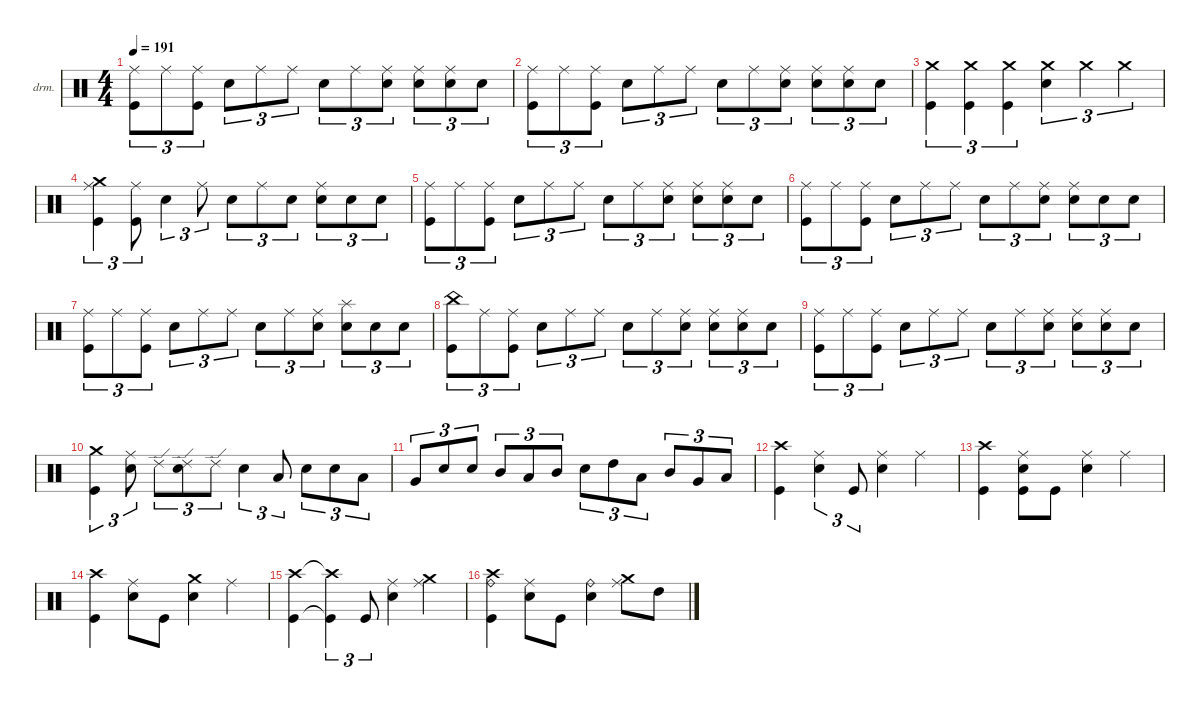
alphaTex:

\defaultSystemsLayout 4
\hideDynamics
\bracketExtendMode nobrackets
\firstSystemTrackNameOrientation horizontal
\otherSystemsTrackNameOrientation horizontal
\track ("Drumkit" "drm.") {instrument percussion}
\staff {score}
\articulation defaults
\ts (4 4)
\tempo 191
\clef neutral
\ks c
("Kick (hit)" "Ride (middle)").8{tu (3 2) dy mf beam Down} "Ride (middle)".8{tu (3 2) dy mp beam Down} ("Kick (hit)" "Ride (middle)").8{tu (3 2) dy mf beam Down} "Snare (hit) 2".8{tu (3 2) dy mp beam Down} "Ride (middle)".8{tu (3 2) beam Down} "Ride (middle)".8{tu (3 2) beam Down} "Snare (hit) 2".8{tu (3 2) dy f beam Down} "Ride (middle)".8{tu (3 2) dy mp beam Down} ("Snare (hit) 2" "Ride (middle)").8{tu (3 2) dy p beam Down} ("Snare (hit) 2" "Ride (middle)").8{tu (3 2) dy mp beam Down} ("Snare (hit) 2" "Ride (middle)").8{tu (3 2) beam Down} "Snare (hit) 2".8{tu (3 2) beam Down} |
("Kick (hit)" "Ride (middle)").8{tu (3 2) dy mf beam Down} "Ride (middle)".8{tu (3 2) dy mp beam Down} ("Kick (hit)" "Ride (middle)").8{tu (3 2) dy mf beam Down} "Snare (hit) 2".8{tu (3 2) dy mp beam Down} "Ride (middle)".8{tu (3 2) beam Down} "Ride (middle)".8{tu (3 2) beam Down} "Snare (hit) 2".8{tu (3 2) dy f beam Down} "Ride (middle)".8{tu (3 2) dy mp beam Down} ("Snare (hit) 2" "Ride (middle)").8{tu (3 2) dy p beam Down} ("Snare (hit) 2" "Ride (middle)").8{tu (3 2) dy mp beam Down} ("Snare (hit) 2" "Ride (middle)").8{tu (3 2) beam Down} "Snare (hit) 2".8{tu (3 2) beam Down} |
("Kick (hit)" "Crash medium (hit)").4{tu (3 2) beam Down} ("Kick (hit)" "Crash medium (hit)").4{tu (3 2) dy f beam Down} ("Kick (hit)" "Crash medium (hit)").4{tu (3 2) beam Down} ("Snare (hit) 2" "Crash medium (hit)").4{tu (3 2) beam Down} "Crash medium (hit)".4{tu (3 2) dy mf beam Down} "Crash medium (hit)".4{tu (3 2) dy f beam Down} |
("Kick (hit)" "Ride (middle)" "Crash medium (hit)").4{tu (3 2) dy mf beam Down} ("Kick (hit)" "Ride (middle)").8{tu (3 2) beam Down} "Snare (hit) 2".4{tu (3 2) dy mp beam Down} "Ride (middle)".8{tu (3 2) beam Down} "Snare (hit) 2".8{tu (3 2) dy f beam Down} "Ride (middle)".8{tu (3 2) dy mp beam Down} "Snare (hit) 2".8{tu (3 2) dy p beam Down} ("Snare (hit) 2" "Ride (middle)").8{tu (3 2) dy mp beam Down} "Snare (hit) 2".8{tu (3 2) beam Down} "Snare (hit) 2".8{tu (3 2) beam Down} |
("Kick (hit)" "Ride (middle)").8{tu (3 2) dy mf beam Down} "Ride (middle)".8{tu (3 2) dy mp beam Down} ("Kick (hit)" "Ride (middle)").8{tu (3 2) dy mf beam Down} "Snare (hit) 2".8{tu (3 2) dy mp beam Down} "Ride (middle)".8{tu (3 2) beam Down} "Ride (middle)".8{tu (3 2) beam Down} "Snare (hit) 2".8{tu (3 2) dy f beam Down} "Ride (middle)".8{tu (3 2) dy mp beam Down} ("Snare (hit) 2" "Ride (middle)").8{tu (3 2) dy p beam Down} ("Snare (hit) 2" "Ride (middle)").8{tu (3 2) dy mp beam Down} ("Snare (hit) 2" "Ride (middle)").8{tu (3 2) beam Down} "Snare (hit) 2".8{tu (3 2) beam Down} |
("Kick (hit)" "Ride (middle)").8{tu (3 2) dy mf beam Down} "Ride (middle)".8{tu (3 2) dy mp beam Down} ("Kick (hit)" "Ride (middle)").8{tu (3 2) dy mf beam Down} "Snare (hit) 2".8{tu (3 2) dy mp beam Down} "Ride (middle)".8{tu (3 2) beam Down} "Ride (middle)".8{tu (3 2) beam Down} "Snare (hit) 2".8{tu (3 2) dy f beam Down} "Ride (middle)".8{tu (3 2) dy mp beam Down} ("Snare (hit) 2" "Ride (middle)").8{tu (3 2) dy p beam Down} ("Snare (hit) 2" "Ride (middle)").8{tu (3 2) dy mp beam Down} "Snare (hit) 2".8{tu (3 2) beam Down} "Snare (hit) 2".8{tu (3 2) beam Down} |
("Kick (hit)" "Ride (middle)").8{tu (3 2) dy mf beam Down} "Ride (middle)".8{tu (3 2) dy mp beam Down} ("Kick (hit)" "Ride (middle)").8{tu (3 2) dy mf beam Down} "Snare (hit) 2".8{tu (3 2) dy mp beam Down} "Ride (middle)".8{tu (3 2) beam Down} "Ride (middle)".8{tu (3 2) beam Down} "Snare (hit) 2".8{tu (3 2) dy f beam Down} "Ride (middle)".8{tu (3 2) dy mp beam Down} ("Snare (hit) 2" "Ride (middle)").8{tu (3 2) dy p beam Down} ("Snare (hit) 2" "Splash (hit)").8{tu (3 2) dy mp beam Down} "Snare (hit) 2".8{tu (3 2) beam Down} "Snare (hit) 2".8{tu (3 2) beam Down} |
("Kick (hit)" "China (hit)").8{tu (3 2) dy mf beam Down} "Ride (middle)".8{tu (3 2) dy mp beam Down} ("Kick (hit)" "Ride (middle)").8{tu (3 2) dy mf beam Down} "Snare (hit) 2".8{tu (3 2) dy mp beam Down} "Ride (middle)".8{tu (3 2) beam Down} "Ride (middle)".8{tu (3 2) beam Down} "Snare (hit) 2".8{tu (3 2) dy f beam Down} "Ride (middle)".8{tu (3 2) dy mp beam Down} ("Snare (hit) 2" "Ride (middle)").8{tu (3 2) dy p beam Down} ("Snare (hit) 2" "Ride (middle)").8{tu (3 2) dy mp beam Down} ("Snare (hit) 2" "Ride (middle)").8{tu (3 2) beam Down} "Snare (hit) 2".8{tu (3 2) beam Down} |
("Kick (hit)" "Ride (middle)").8{tu (3 2) dy mf beam Down} "Ride (middle)".8{tu (3 2) dy mp beam Down} ("Kick (hit)" "Ride (middle)").8{tu (3 2) dy mf beam Down} "Snare (hit) 2".8{tu (3 2) dy mp beam Down} "Ride (middle)".8{tu (3 2) beam Down} "Ride (middle)".8{tu (3 2) beam Down} "Snare (hit) 2".8{tu (3 2) dy f beam Down} "Ride (middle)".8{tu (3 2) dy mp beam Down} ("Snare (hit) 2" "Ride (middle)").8{tu (3 2) dy p beam Down} ("Snare (hit) 2" "Ride (middle)").8{tu (3 2) dy mp beam Down} ("Snare (hit) 2" "Ride (middle)").8{tu (3 2) beam Down} "Snare (hit) 2".8{tu (3 2) beam Down} |
("Kick (hit)" "Crash medium (hit)").4{tu (3 2) dy mf beam Down} ("Snare (hit) 2" "Ride (middle)").8{tu (3 2) beam Down} "Ride (edge) 2".8{tu (3 2) beam Down} ("Snare (hit) 2" "Ride (edge) 2").8{tu (3 2) beam Down} "Ride (edge) 2".8{tu (3 2) beam Down} "Snare (hit) 2".4{tu (3 2) dy f beam Down} "Low Tom (hit)".8{tu (3 2) beam Up} "Snare (hit) 2".8{tu (3 2) dy mp beam Down} "Snare (hit) 2".8{tu (3 2) beam Down} "Low Tom (hit)".8{tu (3 2) dy f beam Down} |
"Very Low Tom (hit)".8{tu (3 2) beam Up} "Snare (hit) 2".8{tu (3 2) beam Up} "Snare (hit) 2".8{tu (3 2) beam Up} "Mid Tom (hit)".8{tu (3 2) beam Up} "Low Tom (hit)".8{tu (3 2) beam Up} "Mid Tom (hit)".8{tu (3 2) beam Up} "Snare (hit) 2".8{tu (3 2) beam Down} "High Tom (hit)".8{tu (3 2) beam Down} "Low Tom (hit)".8{tu (3 2) beam Down} "Mid Tom (hit)".8{tu (3 2) beam Up} "Very Low Tom (hit)".8{tu (3 2) beam Up} "Low Floor Tom (hit)".8{tu (3 2) beam Up} |
("Kick (hit)" "Crash high (hit)").4{beam Down} ("Snare (hit) 2" "Ride (middle)").4{tu (3 2) dy mp beam Down} "Kick (hit)".8{tu (3 2) dy f beam Up} ("Snare (hit) 2" "Ride (middle)").4{beam Down} "Ride (middle)".4{dy mp beam Down} |
("Kick (hit)" "Crash high (hit)").4{dy f beam Down} ("Snare (hit) 2" "Ride (middle)" "Kick (hit)").8{dy mf beam Down} "Kick (hit)".8{dy f beam Down} ("Snare (hit) 2" "Ride (middle)").4{beam Down} "Ride (middle)".4{dy mp beam Down} |
("Kick (hit)" "Crash high (hit)").4{dy f beam Down} ("Snare (hit) 2" "Ride (middle)").8{dy mp beam Down} "Kick (hit)".8{dy f beam Down} ("Snare (hit) 2" "Crash medium (hit)").4{beam Down} "Ride (middle)".4{dy mp beam Down} |
("Kick (hit)" "Crash high (hit)").4{dy f beam Down} ("Kick (hit)"{t} "Crash high (hit)"{t}).4{tu (3 2) dy mf beam Down} "Kick (hit)".8{tu (3 2) dy f beam Up} ("Snare (hit) 2" "Ride (middle)").4{beam Down} ("Crash medium (hit)" "Ride (middle)").4{dy mp beam Down} |
("Kick (hit)" "Crash high (hit)" "Ride (bell)").4{dy f beam Down} ("Snare (hit) 2" "Ride (middle)").8{dy mp beam Down} "Kick (hit)".8{dy f beam Down} ("Snare (hit) 2" "Ride (bell)").4{beam Down} ("Crash medium (hit)" "Ride (middle)").8{dy mp beam Down} "High Tom (hit)".8{beam Down}
